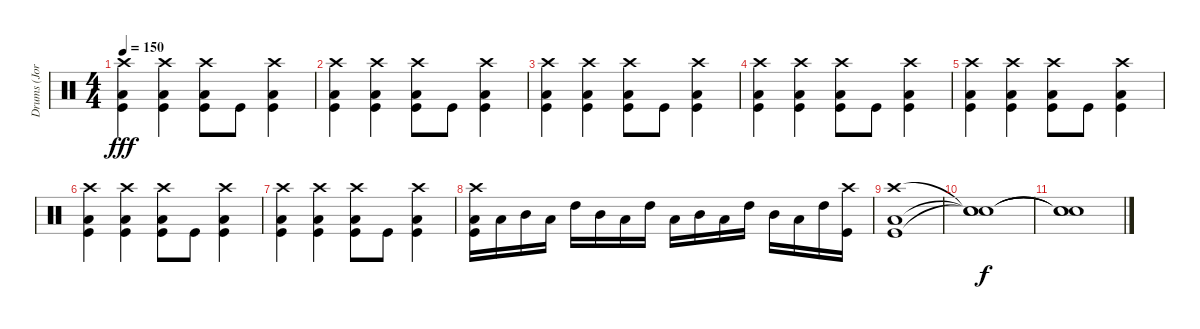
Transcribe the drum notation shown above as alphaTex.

\track ("Drums (Jordan Hastings)" "Drums (Jor") {instrument percussion}
\staff {score}
\articulation defaults
\ts (4 4)
\tempo 150
\clef neutral
\ks c
("Crash high (hit)" "Low Floor Tom (hit)" "Kick (hit)").4{dy fff} ("Crash high (hit)" "Low Floor Tom (hit)" "Kick (hit)").4 ("Crash high (hit)" "Low Floor Tom (hit)" "Kick (hit)").8 "Kick (hit)".8 ("Crash high (hit)" "Low Floor Tom (hit)" "Kick (hit)").4 |
("Crash high (hit)" "Low Floor Tom (hit)" "Kick (hit)").4 ("Crash high (hit)" "Low Floor Tom (hit)" "Kick (hit)").4 ("Crash high (hit)" "Low Floor Tom (hit)" "Kick (hit)").8 "Kick (hit)".8 ("Crash high (hit)" "Low Floor Tom (hit)" "Kick (hit)").4 |
("Crash high (hit)" "Low Floor Tom (hit)" "Kick (hit)").4 ("Crash high (hit)" "Low Floor Tom (hit)" "Kick (hit)").4 ("Crash high (hit)" "Low Floor Tom (hit)" "Kick (hit)").8 "Kick (hit)".8 ("Crash high (hit)" "Low Floor Tom (hit)" "Kick (hit)").4 |
("Crash high (hit)" "Low Floor Tom (hit)" "Kick (hit)").4 ("Crash high (hit)" "Low Floor Tom (hit)" "Kick (hit)").4 ("Crash high (hit)" "Low Floor Tom (hit)" "Kick (hit)").8 "Kick (hit)".8 ("Crash high (hit)" "Low Floor Tom (hit)" "Kick (hit)").4 |
("Crash high (hit)" "Low Floor Tom (hit)" "Kick (hit)").4 ("Crash high (hit)" "Low Floor Tom (hit)" "Kick (hit)").4 ("Crash high (hit)" "Low Floor Tom (hit)" "Kick (hit)").8 "Kick (hit)".8 ("Crash high (hit)" "Low Floor Tom (hit)" "Kick (hit)").4 |
("Crash high (hit)" "Low Floor Tom (hit)" "Kick (hit)").4 ("Crash high (hit)" "Low Floor Tom (hit)" "Kick (hit)").4 ("Crash high (hit)" "Low Floor Tom (hit)" "Kick (hit)").8 "Kick (hit)".8 ("Crash high (hit)" "Low Floor Tom (hit)" "Kick (hit)").4 |
("Crash high (hit)" "Low Floor Tom (hit)" "Kick (hit)").4 ("Crash high (hit)" "Low Floor Tom (hit)" "Kick (hit)").4 ("Crash high (hit)" "Low Floor Tom (hit)" "Kick (hit)").8 "Kick (hit)".8 ("Crash high (hit)" "Low Floor Tom (hit)" "Kick (hit)").4 |
("Crash high (hit)" "Low Floor Tom (hit)" "Kick (hit)").16 "Low Tom (hit)".16 "Mid Tom (hit)".16 "Low Tom (hit)".16 "High Tom (hit)".16 "Mid Tom (hit)".16 "Low Tom (hit)".16 "High Tom (hit)".16 "Low Tom (hit)".16 "Mid Tom (hit)".16 "Low Tom (hit)".16 "High Tom (hit)".16 "Mid Tom (hit)".16 "Low Tom (hit)".16 "High Tom (hit)".16 ("Crash high (hit)" "Kick (hit)").16 |
("Crash high (hit)" "Low Floor Tom (hit)" "Kick (hit)").1{volume 0} |
("Snare (hit)"{t} "Snare (hit)"{t} "Snare (hit)"{t}).1{dy f} |
("Snare (hit)"{t} "Snare (hit)"{t} "Snare (hit)"{t}).1
